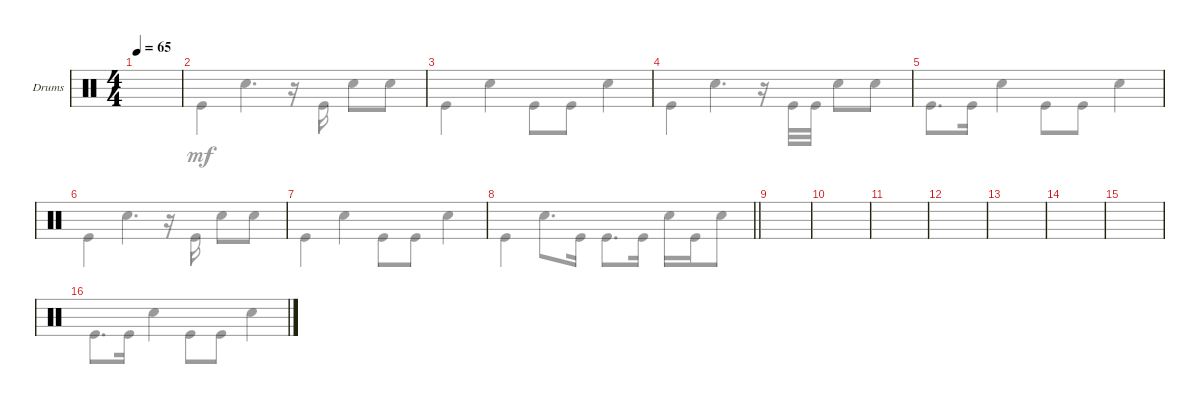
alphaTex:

\defaultSystemsLayout 4
\bracketExtendMode groupsimilarinstruments
\firstSystemTrackNameOrientation horizontal
\otherSystemsTrackNameOrientation horizontal
\track ("Drumkit" "Drums") {instrument percussion}
\staff {score}
\articulation defaults
\voice
\ts (4 4)
\scale
0.487413
\tempo 65
\accidentals auto
\clef neutral
\ottava regular
\simile none
\ks aminor
|
\scale
0.512902 |
\scale
0.5158 |
\scale
0.484161 |
\scale
0.498115 |
\scale
0.501924 |
\scale
0.527231 |
\scale
0.472769
\barLineRight lightlight
|
\scale
0.274678 |
\scale
0.259498 |
\scale
0.25233 |
\scale
0.213783 |
\scale
0.27897 |
\scale
0.256631 |
\scale
0.239427 |
\scale
0.225035
\voice
\clef neutral
\ottava regular
\simile none
\ks aminor "Kick (hit)".8{d dy mf} "Kick (hit)".16 "Snare (hit) 2".4 "Kick (hit)".8 "Kick (hit)".8 "Snare (hit) 2".4
|
"Kick (hit)".4 "Snare (hit) 2".4{d} r.16 "Kick (hit)".16 "Snare (hit) 2".8 "Snare (hit) 2".8 |
"Kick (hit)".4 "Snare (hit) 2".4 "Kick (hit)".8 "Kick (hit)".8 "Snare (hit) 2".4 |
"Kick (hit)".4 "Snare (hit) 2".4{d} r.16 "Kick (hit)".32 "Kick (hit)".32 "Snare (hit) 2".8 "Snare (hit) 2".8 |
"Kick (hit)".8{d} "Kick (hit)".16 "Snare (hit) 2".4 "Kick (hit)".8 "Kick (hit)".8 "Snare (hit) 2".4 |
"Kick (hit)".4 "Snare (hit) 2".4{d} r.16 "Kick (hit)".16 "Snare (hit) 2".8 "Snare (hit) 2".8 |
"Kick (hit)".4 "Snare (hit) 2".4 "Kick (hit)".8 "Kick (hit)".8 "Snare (hit) 2".4 |
\barLineRight lightlight "Kick (hit)".4 "Snare (hit) 2".8{d} "Kick (hit)".16 "Kick (hit)".8{d} "Kick (hit)".16 "Snare (hit) 2".16 "Kick (hit)".16 "Snare (hit) 2".8
|
|
|
|
|
|
|
|
